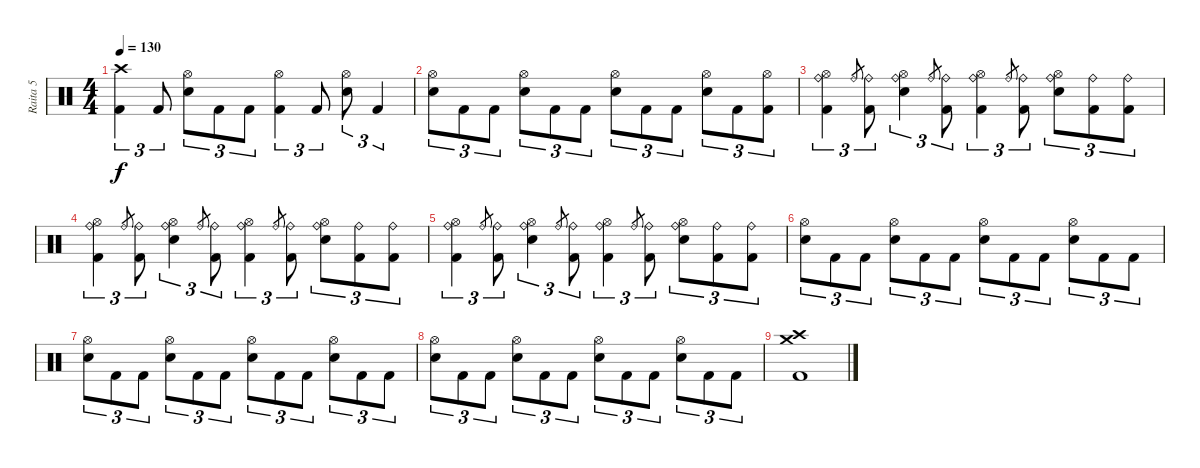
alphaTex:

\track ("Raita 5" "Raita 5") {instrument percussion}
\staff {score}
\articulation defaults
\ts (4 4)
\tempo 130
\clef neutral
\ks c
("Crash high (hit)" "Kick (hit) 2").4{tu (3 2) dy f} "Kick (hit) 2".8{tu (3 2)} ("Hi-Hat (open)" "Snare (hit) 2").8{tu (3 2)} "Kick (hit) 2".8{tu (3 2)} "Kick (hit) 2".8{tu (3 2)} ("Hi-Hat (open)" "Kick (hit) 2").4{tu (3 2)} "Kick (hit) 2".8{tu (3 2)} ("Hi-Hat (open)" "Snare (hit) 2").8{tu (3 2)} "Kick (hit) 2".4{tu (3 2)} |
("Hi-Hat (open)" "Snare (hit) 2").8{tu (3 2)} "Kick (hit) 2".8{tu (3 2)} "Kick (hit) 2".8{tu (3 2)} ("Hi-Hat (open)" "Snare (hit) 2").8{tu (3 2)} "Kick (hit) 2".8{tu (3 2)} "Kick (hit) 2".8{tu (3 2)} ("Hi-Hat (open)" "Snare (hit) 2").8{tu (3 2)} "Kick (hit) 2".8{tu (3 2)} "Kick (hit) 2".8{tu (3 2)} ("Hi-Hat (open)" "Snare (hit) 2").8{tu (3 2)} "Kick (hit) 2".8{tu (3 2)} ("Hi-Hat (open)" "Kick (hit) 2").8{tu (3 2)} |
("Ride (bell)" "Hi-Hat (open)" "Kick (hit) 2").4{tu (3 2)} "Ride (bell)".8{gr} ("Ride (bell)" "Kick (hit) 2").8{tu (3 2)} ("Ride (bell)" "Hi-Hat (open)" "Snare (hit) 2").4{tu (3 2)} "Ride (bell)".8{gr} ("Ride (bell)" "Kick (hit) 2").8{tu (3 2)} ("Ride (bell)" "Hi-Hat (open)" "Kick (hit) 2").4{tu (3 2)} "Ride (bell)".8{gr} ("Ride (bell)" "Kick (hit) 2").8{tu (3 2)} ("Ride (bell)" "Hi-Hat (open)" "Snare (hit) 2").8{tu (3 2)} ("Ride (bell)" "Kick (hit) 2").8{tu (3 2)} ("Ride (bell)" "Kick (hit) 2").8{tu (3 2)} |
("Ride (bell)" "Hi-Hat (open)" "Kick (hit) 2").4{tu (3 2)} "Ride (bell)".8{gr} ("Ride (bell)" "Kick (hit) 2").8{tu (3 2)} ("Ride (bell)" "Hi-Hat (open)" "Snare (hit) 2").4{tu (3 2)} "Ride (bell)".8{gr} ("Ride (bell)" "Kick (hit) 2").8{tu (3 2)} ("Ride (bell)" "Hi-Hat (open)" "Kick (hit) 2").4{tu (3 2)} "Ride (bell)".8{gr} ("Ride (bell)" "Kick (hit) 2").8{tu (3 2)} ("Ride (bell)" "Hi-Hat (open)" "Snare (hit) 2").8{tu (3 2)} ("Ride (bell)" "Kick (hit) 2").8{tu (3 2)} ("Ride (bell)" "Kick (hit) 2").8{tu (3 2)} |
("Ride (bell)" "Hi-Hat (open)" "Kick (hit) 2").4{tu (3 2)} "Ride (bell)".8{gr} ("Ride (bell)" "Kick (hit) 2").8{tu (3 2)} ("Ride (bell)" "Hi-Hat (open)" "Snare (hit) 2").4{tu (3 2)} "Ride (bell)".8{gr} ("Ride (bell)" "Kick (hit) 2").8{tu (3 2)} ("Ride (bell)" "Hi-Hat (open)" "Kick (hit) 2").4{tu (3 2)} "Ride (bell)".8{gr} ("Ride (bell)" "Kick (hit) 2").8{tu (3 2)} ("Ride (bell)" "Hi-Hat (open)" "Snare (hit) 2").8{tu (3 2)} ("Ride (bell)" "Kick (hit) 2").8{tu (3 2)} ("Ride (bell)" "Kick (hit) 2").8{tu (3 2)} |
("Hi-Hat (open)" "Snare (hit) 2").8{tu (3 2)} "Kick (hit) 2".8{tu (3 2)} "Kick (hit) 2".8{tu (3 2)} ("Hi-Hat (open)" "Snare (hit) 2").8{tu (3 2)} "Kick (hit) 2".8{tu (3 2)} "Kick (hit) 2".8{tu (3 2)} ("Hi-Hat (open)" "Snare (hit) 2").8{tu (3 2)} "Kick (hit) 2".8{tu (3 2)} "Kick (hit) 2".8{tu (3 2)} ("Hi-Hat (open)" "Snare (hit) 2").8{tu (3 2)} "Kick (hit) 2".8{tu (3 2)} "Kick (hit) 2".8{tu (3 2)} |
("Hi-Hat (open)" "Snare (hit) 2").8{tu (3 2)} "Kick (hit) 2".8{tu (3 2)} "Kick (hit) 2".8{tu (3 2)} ("Hi-Hat (open)" "Snare (hit) 2").8{tu (3 2)} "Kick (hit) 2".8{tu (3 2)} "Kick (hit) 2".8{tu (3 2)} ("Hi-Hat (open)" "Snare (hit) 2").8{tu (3 2)} "Kick (hit) 2".8{tu (3 2)} "Kick (hit) 2".8{tu (3 2)} ("Hi-Hat (open)" "Snare (hit) 2").8{tu (3 2)} "Kick (hit) 2".8{tu (3 2)} "Kick (hit) 2".8{tu (3 2)} |
("Hi-Hat (open)" "Snare (hit) 2").8{tu (3 2)} "Kick (hit) 2".8{tu (3 2)} "Kick (hit) 2".8{tu (3 2)} ("Hi-Hat (open)" "Snare (hit) 2").8{tu (3 2)} "Kick (hit) 2".8{tu (3 2)} "Kick (hit) 2".8{tu (3 2)} ("Hi-Hat (open)" "Snare (hit) 2").8{tu (3 2)} "Kick (hit) 2".8{tu (3 2)} "Kick (hit) 2".8{tu (3 2)} ("Hi-Hat (open)" "Snare (hit) 2").8{tu (3 2)} "Kick (hit) 2".8{tu (3 2)} "Kick (hit) 2".8{tu (3 2)} |
("Crash medium (hit)" "Crash high (hit)" "Kick (hit) 2").1
